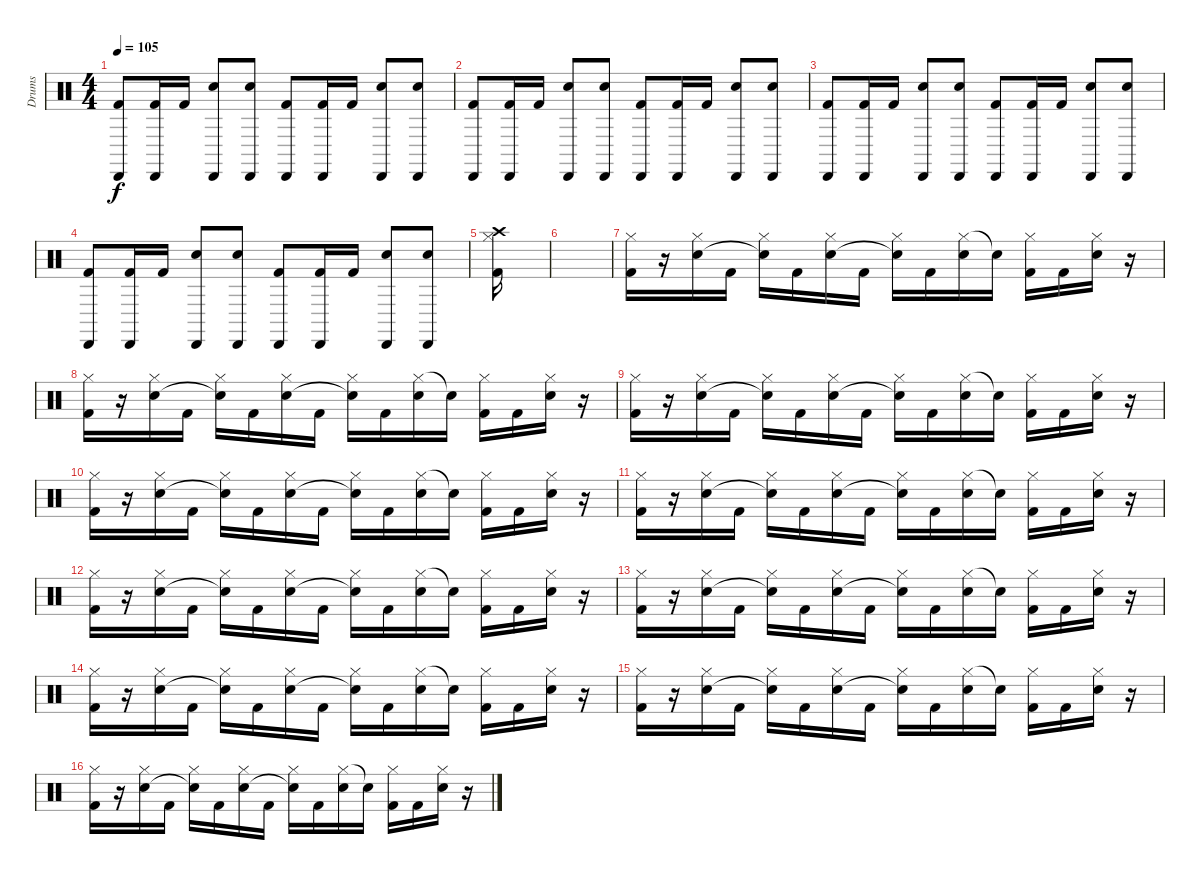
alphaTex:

\track ("Drums" "Drums") {instrument percussion}
\staff {score}
\articulation defaults
\ts (4 4)
\tempo 105
\clef neutral
\ks c
("Cabasa (hit)" "Kick (hit) 2").8{dy f} ("Cabasa (hit)" "Kick (hit) 2").16 "Kick (hit) 2".16 ("Cabasa (hit)" "Electric Snare (hit)").8 ("Cabasa (hit)" "Electric Snare (hit)").8 ("Cabasa (hit)" "Kick (hit) 2").8 ("Cabasa (hit)" "Kick (hit) 2").16 "Kick (hit) 2".16 ("Cabasa (hit)" "Electric Snare (hit)").8 ("Cabasa (hit)" "Electric Snare (hit)").8 |
("Cabasa (hit)" "Kick (hit) 2").8 ("Cabasa (hit)" "Kick (hit) 2").16 "Kick (hit) 2".16 ("Cabasa (hit)" "Electric Snare (hit)").8 ("Cabasa (hit)" "Electric Snare (hit)").8 ("Cabasa (hit)" "Kick (hit) 2").8 ("Cabasa (hit)" "Kick (hit) 2").16 "Kick (hit) 2".16 ("Cabasa (hit)" "Electric Snare (hit)").8 ("Cabasa (hit)" "Electric Snare (hit)").8 |
("Cabasa (hit)" "Kick (hit) 2").8 ("Cabasa (hit)" "Kick (hit) 2").16 "Kick (hit) 2".16 ("Cabasa (hit)" "Electric Snare (hit)").8 ("Cabasa (hit)" "Electric Snare (hit)").8 ("Cabasa (hit)" "Kick (hit) 2").8 ("Cabasa (hit)" "Kick (hit) 2").16 "Kick (hit) 2".16 ("Cabasa (hit)" "Electric Snare (hit)").8 ("Cabasa (hit)" "Electric Snare (hit)").8 |
("Cabasa (hit)" "Kick (hit) 2").8 ("Cabasa (hit)" "Kick (hit) 2").16 "Kick (hit) 2".16 ("Cabasa (hit)" "Electric Snare (hit)").8 ("Cabasa (hit)" "Electric Snare (hit)").8 ("Cabasa (hit)" "Kick (hit) 2").8 ("Cabasa (hit)" "Kick (hit) 2").16 "Kick (hit) 2".16 ("Cabasa (hit)" "Electric Snare (hit)").8 ("Cabasa (hit)" "Electric Snare (hit)").8 |
("Hi-Hat (closed)" "Crash high (hit)" "Kick (hit) 2").16 |
|
("Hi-Hat (closed)" "Kick (hit) 2").16 r.16 ("Hi-Hat (closed)" "Electric Snare (hit)").16 "Kick (hit) 2".16 ("Hi-Hat (closed)" "Snare (hit)"{t}).16 "Kick (hit) 2".16 ("Hi-Hat (closed)" "Electric Snare (hit)").16 "Kick (hit) 2".16 ("Hi-Hat (closed)" "Snare (hit)"{t}).16 "Kick (hit) 2".16 ("Hi-Hat (closed)" "Electric Snare (hit)").16 "Snare (hit)"{t}.16 ("Hi-Hat (closed)" "Kick (hit) 2").16 "Kick (hit) 2".16 ("Hi-Hat (closed)" "Electric Snare (hit)").16 r.16 |
("Hi-Hat (closed)" "Kick (hit) 2").16 r.16 ("Hi-Hat (closed)" "Electric Snare (hit)").16 "Kick (hit) 2".16 ("Hi-Hat (closed)" "Snare (hit)"{t}).16 "Kick (hit) 2".16 ("Hi-Hat (closed)" "Electric Snare (hit)").16 "Kick (hit) 2".16 ("Hi-Hat (closed)" "Snare (hit)"{t}).16 "Kick (hit) 2".16 ("Hi-Hat (closed)" "Electric Snare (hit)").16 "Snare (hit)"{t}.16 ("Hi-Hat (closed)" "Kick (hit) 2").16 "Kick (hit) 2".16 ("Hi-Hat (closed)" "Electric Snare (hit)").16 r.16 |
("Hi-Hat (closed)" "Kick (hit) 2").16 r.16 ("Hi-Hat (closed)" "Electric Snare (hit)").16 "Kick (hit) 2".16 ("Hi-Hat (closed)" "Snare (hit)"{t}).16 "Kick (hit) 2".16 ("Hi-Hat (closed)" "Electric Snare (hit)").16 "Kick (hit) 2".16 ("Hi-Hat (closed)" "Snare (hit)"{t}).16 "Kick (hit) 2".16 ("Hi-Hat (closed)" "Electric Snare (hit)").16 "Snare (hit)"{t}.16 ("Hi-Hat (closed)" "Kick (hit) 2").16 "Kick (hit) 2".16 ("Hi-Hat (closed)" "Electric Snare (hit)").16 r.16 |
("Hi-Hat (closed)" "Kick (hit) 2").16 r.16 ("Hi-Hat (closed)" "Electric Snare (hit)").16 "Kick (hit) 2".16 ("Hi-Hat (closed)" "Snare (hit)"{t}).16 "Kick (hit) 2".16 ("Hi-Hat (closed)" "Electric Snare (hit)").16 "Kick (hit) 2".16 ("Hi-Hat (closed)" "Snare (hit)"{t}).16 "Kick (hit) 2".16 ("Hi-Hat (closed)" "Electric Snare (hit)").16 "Snare (hit)"{t}.16 ("Hi-Hat (closed)" "Kick (hit) 2").16 "Kick (hit) 2".16 ("Hi-Hat (closed)" "Electric Snare (hit)").16 r.16 |
("Hi-Hat (closed)" "Kick (hit) 2").16 r.16 ("Hi-Hat (closed)" "Electric Snare (hit)").16 "Kick (hit) 2".16 ("Hi-Hat (closed)" "Snare (hit)"{t}).16 "Kick (hit) 2".16 ("Hi-Hat (closed)" "Electric Snare (hit)").16 "Kick (hit) 2".16 ("Hi-Hat (closed)" "Snare (hit)"{t}).16 "Kick (hit) 2".16 ("Hi-Hat (closed)" "Electric Snare (hit)").16 "Snare (hit)"{t}.16 ("Hi-Hat (closed)" "Kick (hit) 2").16 "Kick (hit) 2".16 ("Hi-Hat (closed)" "Electric Snare (hit)").16 r.16 |
("Hi-Hat (closed)" "Kick (hit) 2").16 r.16 ("Hi-Hat (closed)" "Electric Snare (hit)").16 "Kick (hit) 2".16 ("Hi-Hat (closed)" "Snare (hit)"{t}).16 "Kick (hit) 2".16 ("Hi-Hat (closed)" "Electric Snare (hit)").16 "Kick (hit) 2".16 ("Hi-Hat (closed)" "Snare (hit)"{t}).16 "Kick (hit) 2".16 ("Hi-Hat (closed)" "Electric Snare (hit)").16 "Snare (hit)"{t}.16 ("Hi-Hat (closed)" "Kick (hit) 2").16 "Kick (hit) 2".16 ("Hi-Hat (closed)" "Electric Snare (hit)").16 r.16 |
("Hi-Hat (closed)" "Kick (hit) 2").16 r.16 ("Hi-Hat (closed)" "Electric Snare (hit)").16 "Kick (hit) 2".16 ("Hi-Hat (closed)" "Snare (hit)"{t}).16 "Kick (hit) 2".16 ("Hi-Hat (closed)" "Electric Snare (hit)").16 "Kick (hit) 2".16 ("Hi-Hat (closed)" "Snare (hit)"{t}).16 "Kick (hit) 2".16 ("Hi-Hat (closed)" "Electric Snare (hit)").16 "Snare (hit)"{t}.16 ("Hi-Hat (closed)" "Kick (hit) 2").16 "Kick (hit) 2".16 ("Hi-Hat (closed)" "Electric Snare (hit)").16 r.16 |
("Hi-Hat (closed)" "Kick (hit) 2").16 r.16 ("Hi-Hat (closed)" "Electric Snare (hit)").16 "Kick (hit) 2".16 ("Hi-Hat (closed)" "Snare (hit)"{t}).16 "Kick (hit) 2".16 ("Hi-Hat (closed)" "Electric Snare (hit)").16 "Kick (hit) 2".16 ("Hi-Hat (closed)" "Snare (hit)"{t}).16 "Kick (hit) 2".16 ("Hi-Hat (closed)" "Electric Snare (hit)").16 "Snare (hit)"{t}.16 ("Hi-Hat (closed)" "Kick (hit) 2").16 "Kick (hit) 2".16 ("Hi-Hat (closed)" "Electric Snare (hit)").16 r.16 |
("Hi-Hat (closed)" "Kick (hit) 2").16 r.16 ("Hi-Hat (closed)" "Electric Snare (hit)").16 "Kick (hit) 2".16 ("Hi-Hat (closed)" "Snare (hit)"{t}).16 "Kick (hit) 2".16 ("Hi-Hat (closed)" "Electric Snare (hit)").16 "Kick (hit) 2".16 ("Hi-Hat (closed)" "Snare (hit)"{t}).16 "Kick (hit) 2".16 ("Hi-Hat (closed)" "Electric Snare (hit)").16 "Snare (hit)"{t}.16 ("Hi-Hat (closed)" "Kick (hit) 2").16 "Kick (hit) 2".16 ("Hi-Hat (closed)" "Electric Snare (hit)").16 r.16 |
("Hi-Hat (closed)" "Kick (hit) 2").16 r.16 ("Hi-Hat (closed)" "Electric Snare (hit)").16 "Kick (hit) 2".16 ("Hi-Hat (closed)" "Snare (hit)"{t}).16 "Kick (hit) 2".16 ("Hi-Hat (closed)" "Electric Snare (hit)").16 "Kick (hit) 2".16 ("Hi-Hat (closed)" "Snare (hit)"{t}).16 "Kick (hit) 2".16 ("Hi-Hat (closed)" "Electric Snare (hit)").16 "Snare (hit)"{t}.16 ("Hi-Hat (closed)" "Kick (hit) 2").16 "Kick (hit) 2".16 ("Hi-Hat (closed)" "Electric Snare (hit)").16 r.16
